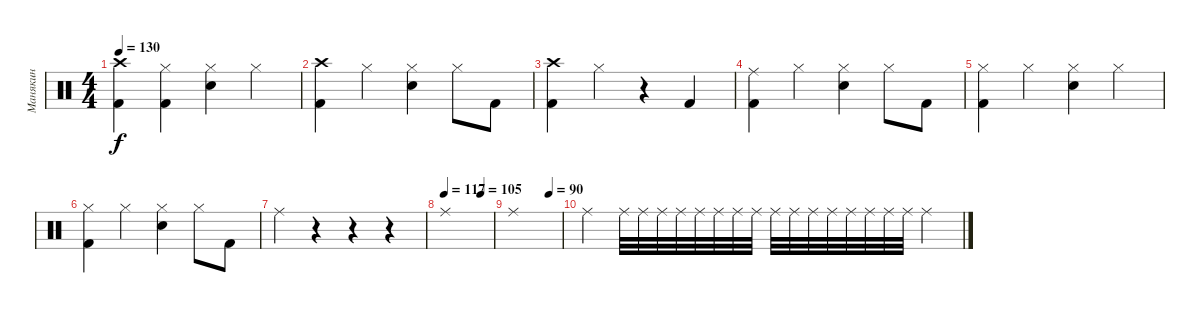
\track ("Манякин" "Манякин") {instrument percussion}
\staff {score}
\articulation defaults
\ts (4 4)
\tempo 130
\clef neutral
\ks c
("Crash high (hit)" "Kick (hit) 2").4{dy f} ("Hi-Hat (closed)" "Kick (hit) 2").4 ("Hi-Hat (closed)" "Electric Snare (hit)").4 "Hi-Hat (closed)".4 |
("Crash high (hit)" "Kick (hit) 2").4 "Hi-Hat (closed)".4 ("Hi-Hat (closed)" "Electric Snare (hit)").4 "Hi-Hat (closed)".8 "Kick (hit) 2".8 |
("Crash high (hit)" "Kick (hit) 2").4 "Hi-Hat (closed)".4 r.4 "Kick (hit) 2".4 |
("Ride (middle)" "Kick (hit) 2").4 "Hi-Hat (closed)".4 ("Hi-Hat (closed)" "Electric Snare (hit)").4 "Hi-Hat (closed)".8 "Kick (hit) 2".8 |
("Hi-Hat (closed)" "Kick (hit) 2").4 "Hi-Hat (closed)".4 ("Hi-Hat (closed)" "Electric Snare (hit)").4 "Hi-Hat (closed)".4 |
("Hi-Hat (closed)" "Kick (hit) 2").4 "Hi-Hat (closed)".4 ("Hi-Hat (closed)" "Electric Snare (hit)").4 "Hi-Hat (closed)".8 "Kick (hit) 2".8 |
"Ride (middle)".4 r.4 r.4 r.4 |
\tempo 117
\tempo (105 0.75)
"Ride (middle)".1 |
\tempo (90 0.75)
"Ride (middle)".1 |
"Ride (middle)".4 "Ride (middle)".32 "Ride (middle)".32 "Ride (middle)".32 "Ride (middle)".32 "Ride (middle)".32 "Ride (middle)".32 "Ride (middle)".32 "Ride (middle)".32 "Ride (middle)".32 "Ride (middle)".32 "Ride (middle)".32 "Ride (middle)".32 "Ride (middle)".32 "Ride (middle)".32 "Ride (middle)".32 "Ride (middle)".32 "Ride (middle)".4
